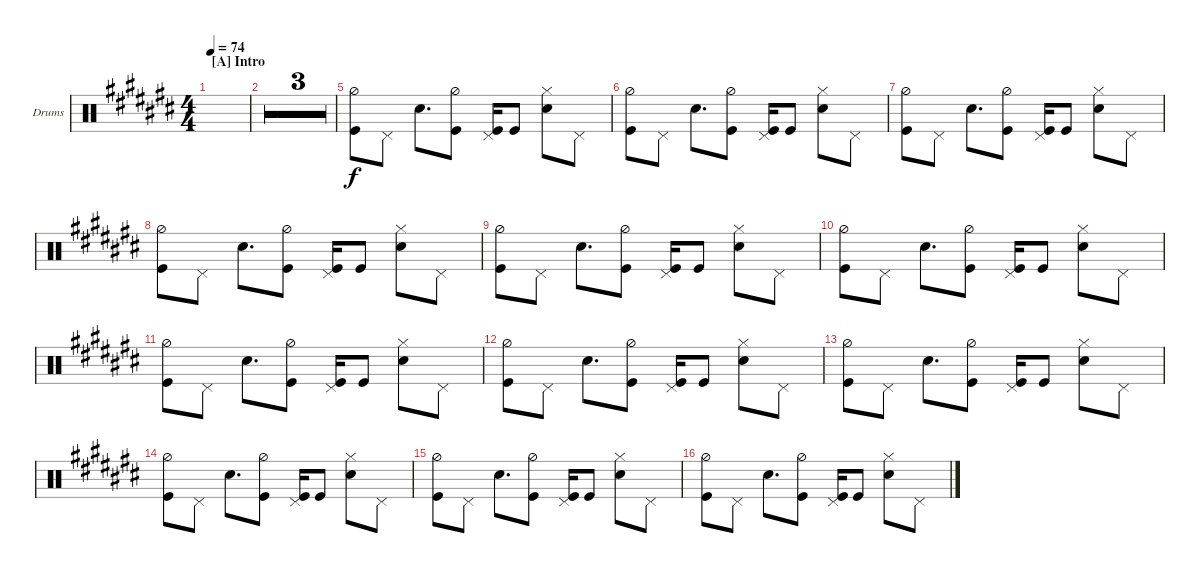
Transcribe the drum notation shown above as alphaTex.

\defaultSystemsLayout 4
\bracketExtendMode groupsimilarinstruments
\firstSystemTrackNameOrientation horizontal
\otherSystemsTrackNameOrientation horizontal
\track ("Drum" "Drums") {multiBarRest instrument percussion}
\staff {score}
\articulation defaults
\ts (4 4)
\section ("A" "Intro")
\tempo 74
\clef neutral
\ks c#
|
|
|
|
("Kick (hit)" "Hi-Hat (half)").8 "Pedal Hi-Hat (hit)".8 "Snare (hit) 2".8{d} ("Kick (hit)" "Hi-Hat (half)").8 ("Kick (hit)" "Pedal Hi-Hat (hit)").16 "Kick (hit)".8 ("Snare (hit) 2" "Hi-Hat (closed)").8 "Pedal Hi-Hat (hit)".8 |
("Kick (hit)" "Hi-Hat (half)").8 "Pedal Hi-Hat (hit)".8 "Snare (hit) 2".8{d} ("Kick (hit)" "Hi-Hat (half)").8 ("Kick (hit)" "Pedal Hi-Hat (hit)").16 "Kick (hit)".8 ("Snare (hit) 2" "Hi-Hat (closed)").8 "Pedal Hi-Hat (hit)".8 |
("Kick (hit)" "Hi-Hat (half)").8 "Pedal Hi-Hat (hit)".8 "Snare (hit) 2".8{d} ("Kick (hit)" "Hi-Hat (half)").8 ("Kick (hit)" "Pedal Hi-Hat (hit)").16 "Kick (hit)".8 ("Snare (hit) 2" "Hi-Hat (closed)").8 "Pedal Hi-Hat (hit)".8 |
("Kick (hit)" "Hi-Hat (half)").8 "Pedal Hi-Hat (hit)".8 "Snare (hit) 2".8{d} ("Kick (hit)" "Hi-Hat (half)").8 ("Kick (hit)" "Pedal Hi-Hat (hit)").16 "Kick (hit)".8 ("Snare (hit) 2" "Hi-Hat (closed)").8 "Pedal Hi-Hat (hit)".8 |
("Kick (hit)" "Hi-Hat (half)").8 "Pedal Hi-Hat (hit)".8 "Snare (hit) 2".8{d} ("Kick (hit)" "Hi-Hat (half)").8 ("Kick (hit)" "Pedal Hi-Hat (hit)").16 "Kick (hit)".8 ("Snare (hit) 2" "Hi-Hat (closed)").8 "Pedal Hi-Hat (hit)".8 |
("Kick (hit)" "Hi-Hat (half)").8 "Pedal Hi-Hat (hit)".8 "Snare (hit) 2".8{d} ("Kick (hit)" "Hi-Hat (half)").8 ("Kick (hit)" "Pedal Hi-Hat (hit)").16 "Kick (hit)".8 ("Snare (hit) 2" "Hi-Hat (closed)").8 "Pedal Hi-Hat (hit)".8 |
("Kick (hit)" "Hi-Hat (half)").8 "Pedal Hi-Hat (hit)".8 "Snare (hit) 2".8{d} ("Kick (hit)" "Hi-Hat (half)").8 ("Kick (hit)" "Pedal Hi-Hat (hit)").16 "Kick (hit)".8 ("Snare (hit) 2" "Hi-Hat (closed)").8 "Pedal Hi-Hat (hit)".8 |
("Kick (hit)" "Hi-Hat (half)").8 "Pedal Hi-Hat (hit)".8 "Snare (hit) 2".8{d} ("Kick (hit)" "Hi-Hat (half)").8 ("Kick (hit)" "Pedal Hi-Hat (hit)").16 "Kick (hit)".8 ("Snare (hit) 2" "Hi-Hat (closed)").8 "Pedal Hi-Hat (hit)".8 |
("Kick (hit)" "Hi-Hat (half)").8 "Pedal Hi-Hat (hit)".8 "Snare (hit) 2".8{d} ("Kick (hit)" "Hi-Hat (half)").8 ("Kick (hit)" "Pedal Hi-Hat (hit)").16 "Kick (hit)".8 ("Snare (hit) 2" "Hi-Hat (closed)").8 "Pedal Hi-Hat (hit)".8 |
("Kick (hit)" "Hi-Hat (half)").8 "Pedal Hi-Hat (hit)".8 "Snare (hit) 2".8{d} ("Kick (hit)" "Hi-Hat (half)").8 ("Kick (hit)" "Pedal Hi-Hat (hit)").16 "Kick (hit)".8 ("Snare (hit) 2" "Hi-Hat (closed)").8 "Pedal Hi-Hat (hit)".8 |
("Kick (hit)" "Hi-Hat (half)").8 "Pedal Hi-Hat (hit)".8 "Snare (hit) 2".8{d} ("Kick (hit)" "Hi-Hat (half)").8 ("Kick (hit)" "Pedal Hi-Hat (hit)").16 "Kick (hit)".8 ("Snare (hit) 2" "Hi-Hat (closed)").8 "Pedal Hi-Hat (hit)".8 |
("Kick (hit)" "Hi-Hat (half)").8 "Pedal Hi-Hat (hit)".8 "Snare (hit) 2".8{d} ("Kick (hit)" "Hi-Hat (half)").8 ("Kick (hit)" "Pedal Hi-Hat (hit)").16 "Kick (hit)".8 ("Snare (hit) 2" "Hi-Hat (closed)").8 "Pedal Hi-Hat (hit)".8
